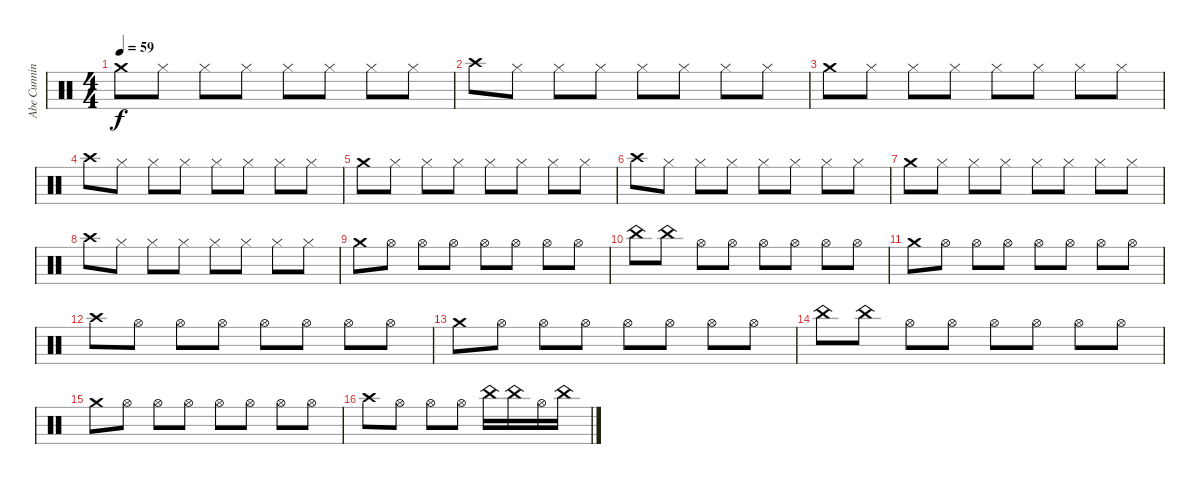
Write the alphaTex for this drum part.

\track ("Abe Cunningham Cymbals" "Abe Cunnin") {instrument percussion}
\staff {score}
\articulation defaults
\ts (4 4)
\tempo 59
\clef neutral
\ks c "Crash medium (hit)".8{dy f} "Hi-Hat (closed)".8 "Hi-Hat (closed)".8 "Hi-Hat (closed)".8 "Hi-Hat (closed)".8 "Hi-Hat (closed)".8 "Hi-Hat (closed)".8 "Hi-Hat (closed)".8
|
"Crash high (hit)".8 "Hi-Hat (closed)".8 "Hi-Hat (closed)".8 "Hi-Hat (closed)".8 "Hi-Hat (closed)".8 "Hi-Hat (closed)".8 "Hi-Hat (closed)".8 "Hi-Hat (closed)".8 |
"Crash medium (hit)".8 "Hi-Hat (closed)".8 "Hi-Hat (closed)".8 "Hi-Hat (closed)".8 "Hi-Hat (closed)".8 "Hi-Hat (closed)".8 "Hi-Hat (closed)".8 "Hi-Hat (closed)".8 |
"Crash high (hit)".8 "Hi-Hat (closed)".8 "Hi-Hat (closed)".8 "Hi-Hat (closed)".8 "Hi-Hat (closed)".8 "Hi-Hat (closed)".8 "Hi-Hat (closed)".8 "Hi-Hat (closed)".8 |
"Crash medium (hit)".8 "Hi-Hat (closed)".8 "Hi-Hat (closed)".8 "Hi-Hat (closed)".8 "Hi-Hat (closed)".8 "Hi-Hat (closed)".8 "Hi-Hat (closed)".8 "Hi-Hat (closed)".8 |
"Crash high (hit)".8 "Hi-Hat (closed)".8 "Hi-Hat (closed)".8 "Hi-Hat (closed)".8 "Hi-Hat (closed)".8 "Hi-Hat (closed)".8 "Hi-Hat (closed)".8 "Hi-Hat (closed)".8 |
"Crash medium (hit)".8 "Hi-Hat (closed)".8 "Hi-Hat (closed)".8 "Hi-Hat (closed)".8 "Hi-Hat (closed)".8 "Hi-Hat (closed)".8 "Hi-Hat (closed)".8 "Hi-Hat (closed)".8 |
"Crash high (hit)".8 "Hi-Hat (closed)".8 "Hi-Hat (closed)".8 "Hi-Hat (closed)".8 "Hi-Hat (closed)".8 "Hi-Hat (closed)".8 "Hi-Hat (closed)".8 "Hi-Hat (closed)".8 |
"Crash medium (hit)".8 "Hi-Hat (open)".8 "Hi-Hat (open)".8 "Hi-Hat (open)".8 "Hi-Hat (open)".8 "Hi-Hat (open)".8 "Hi-Hat (open)".8 "Hi-Hat (open)".8 |
"China (hit)".8 "China (hit)".8 "Hi-Hat (open)".8 "Hi-Hat (open)".8 "Hi-Hat (open)".8 "Hi-Hat (open)".8 "Hi-Hat (open)".8 "Hi-Hat (open)".8 |
"Crash medium (hit)".8 "Hi-Hat (open)".8 "Hi-Hat (open)".8 "Hi-Hat (open)".8 "Hi-Hat (open)".8 "Hi-Hat (open)".8 "Hi-Hat (open)".8 "Hi-Hat (open)".8 |
"Crash high (hit)".8 "Hi-Hat (open)".8 "Hi-Hat (open)".8 "Hi-Hat (open)".8 "Hi-Hat (open)".8 "Hi-Hat (open)".8 "Hi-Hat (open)".8 "Hi-Hat (open)".8 |
"Crash medium (hit)".8 "Hi-Hat (open)".8 "Hi-Hat (open)".8 "Hi-Hat (open)".8 "Hi-Hat (open)".8 "Hi-Hat (open)".8 "Hi-Hat (open)".8 "Hi-Hat (open)".8 |
"China (hit)".8 "China (hit)".8 "Hi-Hat (open)".8 "Hi-Hat (open)".8 "Hi-Hat (open)".8 "Hi-Hat (open)".8 "Hi-Hat (open)".8 "Hi-Hat (open)".8 |
"Crash medium (hit)".8 "Hi-Hat (open)".8 "Hi-Hat (open)".8 "Hi-Hat (open)".8 "Hi-Hat (open)".8 "Hi-Hat (open)".8 "Hi-Hat (open)".8 "Hi-Hat (open)".8 |
"Crash high (hit)".8 "Hi-Hat (open)".8 "Hi-Hat (open)".8 "Hi-Hat (open)".8 "China (hit)".16 "China (hit)".16 "Hi-Hat (open)".16 "China (hit)".16
